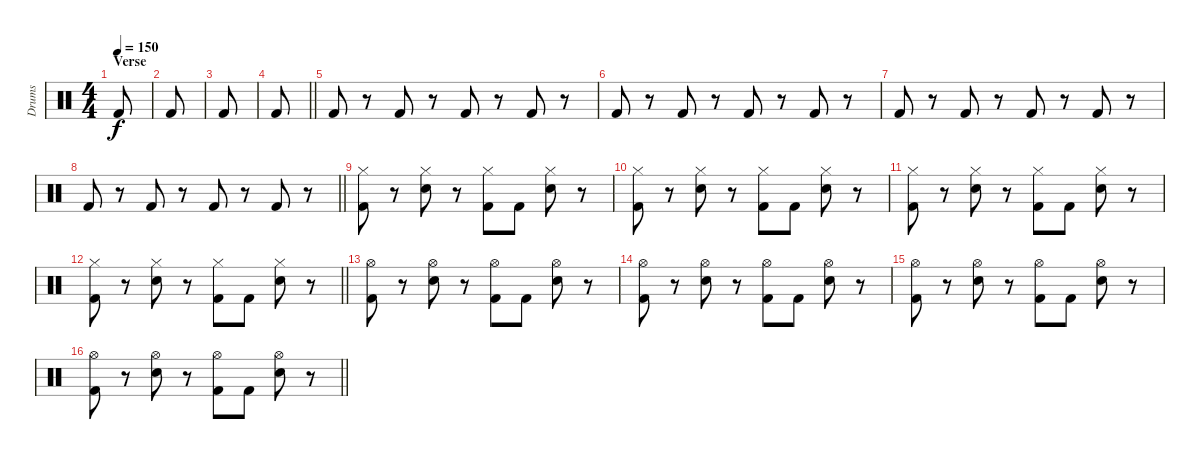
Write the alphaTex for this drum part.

\track ("Drums" "Drums") {instrument percussion}
\staff {score}
\articulation defaults
\ts (4 4)
\section ("" "Verse")
\tempo 150
\clef neutral
\ks c "Kick (hit) 2".8{dy f}
|
"Kick (hit) 2".8 |
"Kick (hit) 2".8 |
\barLineRight lightlight "Kick (hit) 2".8
|
"Kick (hit) 2".8 r.8 "Kick (hit) 2".8 r.8 "Kick (hit) 2".8 r.8 "Kick (hit) 2".8 r.8 |
"Kick (hit) 2".8 r.8 "Kick (hit) 2".8 r.8 "Kick (hit) 2".8 r.8 "Kick (hit) 2".8 r.8 |
"Kick (hit) 2".8 r.8 "Kick (hit) 2".8 r.8 "Kick (hit) 2".8 r.8 "Kick (hit) 2".8 r.8 |
\barLineRight lightlight "Kick (hit) 2".8
r.8 "Kick (hit) 2".8 r.8 "Kick (hit) 2".8 r.8 "Kick (hit) 2".8 r.8 |
("Hi-Hat (closed)" "Kick (hit) 2").8 r.8 ("Hi-Hat (closed)" "Snare (hit) 2").8 r.8 ("Hi-Hat (closed)" "Kick (hit) 2").8 "Kick (hit) 2".8 ("Hi-Hat (closed)" "Snare (hit) 2").8 r.8 |
("Hi-Hat (closed)" "Kick (hit) 2").8 r.8 ("Hi-Hat (closed)" "Snare (hit) 2").8 r.8 ("Hi-Hat (closed)" "Kick (hit) 2").8 "Kick (hit) 2".8 ("Hi-Hat (closed)" "Snare (hit) 2").8 r.8 |
("Hi-Hat (closed)" "Kick (hit) 2").8 r.8 ("Hi-Hat (closed)" "Snare (hit) 2").8 r.8 ("Hi-Hat (closed)" "Kick (hit) 2").8 "Kick (hit) 2".8 ("Hi-Hat (closed)" "Snare (hit) 2").8 r.8 |
\barLineRight lightlight
("Hi-Hat (closed)" "Kick (hit) 2").8 r.8 ("Hi-Hat (closed)" "Snare (hit) 2").8 r.8 ("Hi-Hat (closed)" "Kick (hit) 2").8 "Kick (hit) 2".8 ("Hi-Hat (closed)" "Snare (hit) 2").8 r.8 |
("Hi-Hat (open)" "Kick (hit) 2").8 r.8 ("Hi-Hat (open)" "Snare (hit) 2").8 r.8 ("Hi-Hat (open)" "Kick (hit) 2").8 "Kick (hit) 2".8 ("Hi-Hat (open)" "Snare (hit) 2").8 r.8 |
("Hi-Hat (open)" "Kick (hit) 2").8 r.8 ("Hi-Hat (open)" "Snare (hit) 2").8 r.8 ("Hi-Hat (open)" "Kick (hit) 2").8 "Kick (hit) 2".8 ("Hi-Hat (open)" "Snare (hit) 2").8 r.8 |
("Hi-Hat (open)" "Kick (hit) 2").8 r.8 ("Hi-Hat (open)" "Snare (hit) 2").8 r.8 ("Hi-Hat (open)" "Kick (hit) 2").8 "Kick (hit) 2".8 ("Hi-Hat (open)" "Snare (hit) 2").8 r.8 |
\barLineRight lightlight
("Hi-Hat (open)" "Kick (hit) 2").8 r.8 ("Hi-Hat (open)" "Snare (hit) 2").8 r.8 ("Hi-Hat (open)" "Kick (hit) 2").8 "Kick (hit) 2".8 ("Hi-Hat (open)" "Snare (hit) 2").8 r.8
